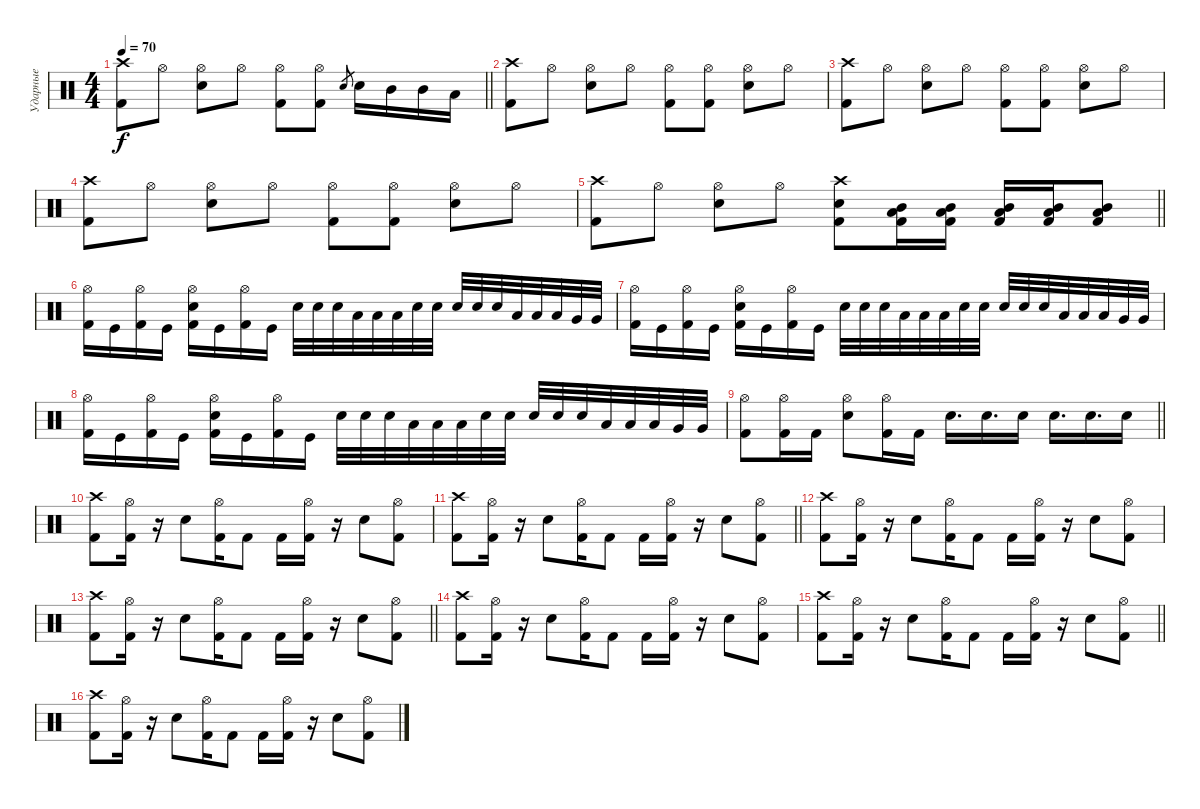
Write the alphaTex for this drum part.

\track ("Ударные" "Ударные") {instrument percussion}
\staff {score}
\articulation defaults
\ts (4 4)
\tempo 70
\clef neutral
\barLineRight lightlight
\ks c
("Crash high (hit)" "Kick (hit) 2").8{dy f} "Hi-Hat (open)".8 ("Hi-Hat (open)" "Snare (hit) 2").8 "Hi-Hat (open)".8 ("Hi-Hat (open)" "Kick (hit) 2").8 ("Hi-Hat (open)" "Kick (hit) 2").8 "Snare (hit) 2".8{gr} "Snare (hit) 2".16 "Mid Tom (hit)".16 "Mid Tom (hit)".16 "Low Tom (hit)".16 |
("Crash high (hit)" "Kick (hit) 2").8 "Hi-Hat (open)".8 ("Hi-Hat (open)" "Snare (hit) 2").8 "Hi-Hat (open)".8 ("Hi-Hat (open)" "Kick (hit) 2").8 ("Hi-Hat (open)" "Kick (hit) 2").8 ("Hi-Hat (open)" "Snare (hit) 2").8 "Hi-Hat (open)".8 |
("Crash high (hit)" "Kick (hit) 2").8 "Hi-Hat (open)".8 ("Hi-Hat (open)" "Snare (hit) 2").8 "Hi-Hat (open)".8 ("Hi-Hat (open)" "Kick (hit) 2").8 ("Hi-Hat (open)" "Kick (hit) 2").8 ("Hi-Hat (open)" "Snare (hit) 2").8 "Hi-Hat (open)".8 |
("Crash high (hit)" "Kick (hit) 2").8 "Hi-Hat (open)".8 ("Hi-Hat (open)" "Snare (hit) 2").8 "Hi-Hat (open)".8 ("Hi-Hat (open)" "Kick (hit) 2").8 ("Hi-Hat (open)" "Kick (hit) 2").8 ("Hi-Hat (open)" "Snare (hit) 2").8 "Hi-Hat (open)".8 |
\barLineRight lightlight
("Crash high (hit)" "Kick (hit) 2").8 "Hi-Hat (open)".8 ("Hi-Hat (open)" "Snare (hit) 2").8 "Hi-Hat (open)".8 ("Crash high (hit)" "Snare (hit) 2" "Kick (hit) 2").8 ("Low Tom (hit)" "Mid Tom (hit)" "Kick (hit) 2").16 ("Low Tom (hit)" "Mid Tom (hit)" "Kick (hit) 2").16 ("Low Tom (hit)" "Mid Tom (hit)" "Kick (hit) 2").16 ("Low Tom (hit)" "Mid Tom (hit)" "Kick (hit) 2").16 ("Low Tom (hit)" "Mid Tom (hit)" "Kick (hit) 2").8 |
\section ("" "")
("Kick (hit) 2" "Hi-Hat (open)").16 "Kick (hit)".16 ("Kick (hit) 2" "Hi-Hat (open)").16 "Kick (hit)".16 ("Kick (hit) 2" "Snare (hit) 2" "Hi-Hat (open)").16 "Kick (hit)".16 ("Kick (hit) 2" "Hi-Hat (open)").16 "Kick (hit)".16 "Snare (hit) 2".32 "Snare (hit) 2".32 "Snare (hit) 2".32 "Low Tom (hit)".32 "Low Tom (hit)".32 "Low Tom (hit)".32 "Snare (hit) 2".32 "Snare (hit) 2".32 "Snare (hit) 2".32 "Snare (hit) 2".32 "Snare (hit) 2".32 "Low Tom (hit)".32 "Low Tom (hit)".32 "Low Tom (hit)".32 "Very Low Tom (hit)".32 "Very Low Tom (hit)".32 |
("Kick (hit) 2" "Hi-Hat (open)").16 "Kick (hit)".16 ("Kick (hit) 2" "Hi-Hat (open)").16 "Kick (hit)".16 ("Kick (hit) 2" "Snare (hit) 2" "Hi-Hat (open)").16 "Kick (hit)".16 ("Kick (hit) 2" "Hi-Hat (open)").16 "Kick (hit)".16 "Snare (hit) 2".32 "Snare (hit) 2".32 "Snare (hit) 2".32 "Low Tom (hit)".32 "Low Tom (hit)".32 "Low Tom (hit)".32 "Snare (hit) 2".32 "Snare (hit) 2".32 "Snare (hit) 2".32 "Snare (hit) 2".32 "Snare (hit) 2".32 "Low Tom (hit)".32 "Low Tom (hit)".32 "Low Tom (hit)".32 "Very Low Tom (hit)".32 "Very Low Tom (hit)".32 |
("Kick (hit) 2" "Hi-Hat (open)").16 "Kick (hit)".16 ("Kick (hit) 2" "Hi-Hat (open)").16 "Kick (hit)".16 ("Kick (hit) 2" "Snare (hit) 2" "Hi-Hat (open)").16 "Kick (hit)".16 ("Kick (hit) 2" "Hi-Hat (open)").16 "Kick (hit)".16 "Snare (hit) 2".32 "Snare (hit) 2".32 "Snare (hit) 2".32 "Low Tom (hit)".32 "Low Tom (hit)".32 "Low Tom (hit)".32 "Snare (hit) 2".32 "Snare (hit) 2".32 "Snare (hit) 2".32 "Snare (hit) 2".32 "Snare (hit) 2".32 "Low Tom (hit)".32 "Low Tom (hit)".32 "Low Tom (hit)".32 "Very Low Tom (hit)".32 "Very Low Tom (hit)".32 |
\barLineRight lightlight
("Hi-Hat (open)" "Kick (hit) 2").8 ("Hi-Hat (open)" "Kick (hit) 2").16 "Kick (hit) 2".16 ("Hi-Hat (open)" "Snare (hit) 2").8 ("Hi-Hat (open)" "Kick (hit) 2").16 "Kick (hit) 2".16 "Snare (hit) 2".16{d} "Snare (hit) 2".16{d} "Snare (hit) 2".16 "Snare (hit) 2".16{d} "Snare (hit) 2".16{d} "Snare (hit) 2".16 |
\section ("" "")
("Kick (hit) 2" "Crash high (hit)").8 ("Kick (hit) 2" "Hi-Hat (open)").16 r.16 "Snare (hit) 2".8 ("Kick (hit) 2" "Hi-Hat (open)").16 "Kick (hit) 2".8 "Kick (hit) 2".16 ("Kick (hit) 2" "Hi-Hat (open)").16 r.16 "Snare (hit) 2".8 ("Kick (hit) 2" "Hi-Hat (open)").8 |
\barLineRight lightlight
("Kick (hit) 2" "Crash high (hit)").8 ("Kick (hit) 2" "Hi-Hat (open)").16 r.16 "Snare (hit) 2".8 ("Kick (hit) 2" "Hi-Hat (open)").16 "Kick (hit) 2".8 "Kick (hit) 2".16 ("Kick (hit) 2" "Hi-Hat (open)").16 r.16 "Snare (hit) 2".8 ("Kick (hit) 2" "Hi-Hat (open)").8 |
("Kick (hit) 2" "Crash high (hit)").8 ("Kick (hit) 2" "Hi-Hat (open)").16 r.16 "Snare (hit) 2".8 ("Kick (hit) 2" "Hi-Hat (open)").16 "Kick (hit) 2".8 "Kick (hit) 2".16 ("Kick (hit) 2" "Hi-Hat (open)").16 r.16 "Snare (hit) 2".8 ("Kick (hit) 2" "Hi-Hat (open)").8 |
\barLineRight lightlight
("Kick (hit) 2" "Crash high (hit)").8 ("Kick (hit) 2" "Hi-Hat (open)").16 r.16 "Snare (hit) 2".8 ("Kick (hit) 2" "Hi-Hat (open)").16 "Kick (hit) 2".8 "Kick (hit) 2".16 ("Kick (hit) 2" "Hi-Hat (open)").16 r.16 "Snare (hit) 2".8 ("Kick (hit) 2" "Hi-Hat (open)").8 |
("Kick (hit) 2" "Crash high (hit)").8 ("Kick (hit) 2" "Hi-Hat (open)").16 r.16 "Snare (hit) 2".8 ("Kick (hit) 2" "Hi-Hat (open)").16 "Kick (hit) 2".8 "Kick (hit) 2".16 ("Kick (hit) 2" "Hi-Hat (open)").16 r.16 "Snare (hit) 2".8 ("Kick (hit) 2" "Hi-Hat (open)").8 |
\barLineRight lightlight
("Kick (hit) 2" "Crash high (hit)").8 ("Kick (hit) 2" "Hi-Hat (open)").16 r.16 "Snare (hit) 2".8 ("Kick (hit) 2" "Hi-Hat (open)").16 "Kick (hit) 2".8 "Kick (hit) 2".16 ("Kick (hit) 2" "Hi-Hat (open)").16 r.16 "Snare (hit) 2".8 ("Kick (hit) 2" "Hi-Hat (open)").8 |
("Kick (hit) 2" "Crash high (hit)").8 ("Kick (hit) 2" "Hi-Hat (open)").16 r.16 "Snare (hit) 2".8 ("Kick (hit) 2" "Hi-Hat (open)").16 "Kick (hit) 2".8 "Kick (hit) 2".16 ("Kick (hit) 2" "Hi-Hat (open)").16 r.16 "Snare (hit) 2".8 ("Kick (hit) 2" "Hi-Hat (open)").8
